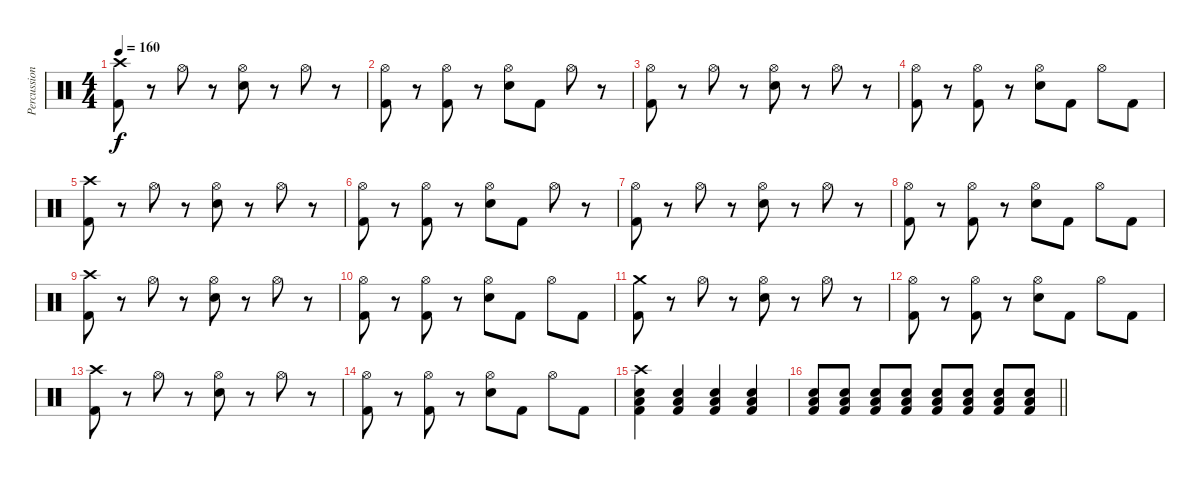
\track ("Percussion" "Percussion") {instrument percussion}
\staff {score}
\articulation defaults
\ts (4 4)
\tempo 160
\clef neutral
\ks c
("Crash high (hit)" "Kick (hit) 2").8{dy f} r.8 "Hi-Hat (open)".8 r.8 ("Hi-Hat (open)" "Snare (hit) 2").8 r.8 "Hi-Hat (open)".8 r.8 |
("Hi-Hat (open)" "Kick (hit) 2").8 r.8 ("Hi-Hat (open)" "Kick (hit) 2").8 r.8 ("Hi-Hat (open)" "Snare (hit) 2").8 "Kick (hit) 2".8 "Hi-Hat (open)".8 r.8 |
("Hi-Hat (open)" "Kick (hit) 2").8 r.8 "Hi-Hat (open)".8 r.8 ("Hi-Hat (open)" "Snare (hit) 2").8 r.8 "Hi-Hat (open)".8 r.8 |
("Hi-Hat (open)" "Kick (hit) 2").8 r.8 ("Hi-Hat (open)" "Kick (hit) 2").8 r.8 ("Hi-Hat (open)" "Snare (hit) 2").8 "Kick (hit) 2".8 "Hi-Hat (open)".8 "Kick (hit) 2".8 |
("Crash high (hit)" "Kick (hit) 2").8 r.8 "Hi-Hat (open)".8 r.8 ("Hi-Hat (open)" "Snare (hit) 2").8 r.8 "Hi-Hat (open)".8 r.8 |
("Hi-Hat (open)" "Kick (hit) 2").8 r.8 ("Hi-Hat (open)" "Kick (hit) 2").8 r.8 ("Hi-Hat (open)" "Snare (hit) 2").8 "Kick (hit) 2".8 "Hi-Hat (open)".8 r.8 |
("Hi-Hat (open)" "Kick (hit) 2").8 r.8 "Hi-Hat (open)".8 r.8 ("Hi-Hat (open)" "Snare (hit) 2").8 r.8 "Hi-Hat (open)".8 r.8 |
("Hi-Hat (open)" "Kick (hit) 2").8 r.8 ("Hi-Hat (open)" "Kick (hit) 2").8 r.8 ("Hi-Hat (open)" "Snare (hit) 2").8 "Kick (hit) 2".8 "Hi-Hat (open)".8 "Kick (hit) 2".8 |
("Crash high (hit)" "Kick (hit) 2").8 r.8 "Hi-Hat (open)".8 r.8 ("Hi-Hat (open)" "Snare (hit) 2").8 r.8 "Hi-Hat (open)".8 r.8 |
("Hi-Hat (open)" "Kick (hit) 2").8 r.8 ("Hi-Hat (open)" "Kick (hit) 2").8 r.8 ("Hi-Hat (open)" "Snare (hit) 2").8 "Kick (hit) 2".8 "Hi-Hat (open)".8 "Kick (hit) 2".8 |
("Crash medium (hit)" "Kick (hit) 2").8 r.8 "Hi-Hat (open)".8 r.8 ("Hi-Hat (open)" "Snare (hit) 2").8 r.8 "Hi-Hat (open)".8 r.8 |
("Hi-Hat (open)" "Kick (hit) 2").8 r.8 ("Hi-Hat (open)" "Kick (hit) 2").8 r.8 ("Hi-Hat (open)" "Snare (hit) 2").8 "Kick (hit) 2".8 "Hi-Hat (open)".8 "Kick (hit) 2".8 |
("Crash high (hit)" "Kick (hit) 2").8 r.8 "Hi-Hat (open)".8 r.8 ("Hi-Hat (open)" "Snare (hit) 2").8 r.8 "Hi-Hat (open)".8 r.8 |
("Hi-Hat (open)" "Kick (hit) 2").8 r.8 ("Hi-Hat (open)" "Kick (hit) 2").8 r.8 ("Hi-Hat (open)" "Snare (hit) 2").8 "Kick (hit) 2".8 "Hi-Hat (open)".8 "Kick (hit) 2".8 |
("Crash high (hit)" "Snare (hit) 2" "Low Floor Tom (hit)" "Kick (hit) 2").4 ("Snare (hit) 2" "Low Floor Tom (hit)" "Kick (hit) 2").4 ("Snare (hit) 2" "Low Floor Tom (hit)" "Kick (hit) 2").4 ("Snare (hit) 2" "Low Floor Tom (hit)" "Kick (hit) 2").4 |
\barLineRight lightlight
("Snare (hit) 2" "Low Floor Tom (hit)" "Kick (hit) 2").8 ("Snare (hit) 2" "Low Floor Tom (hit)" "Kick (hit) 2").8 ("Snare (hit) 2" "Low Floor Tom (hit)" "Kick (hit) 2").8 ("Snare (hit) 2" "Low Floor Tom (hit)" "Kick (hit) 2").8 ("Snare (hit) 2" "Low Floor Tom (hit)" "Kick (hit) 2").8 ("Snare (hit) 2" "Low Floor Tom (hit)" "Kick (hit) 2").8 ("Snare (hit) 2" "Low Floor Tom (hit)" "Kick (hit) 2").8 ("Snare (hit) 2" "Low Floor Tom (hit)" "Kick (hit) 2").8
